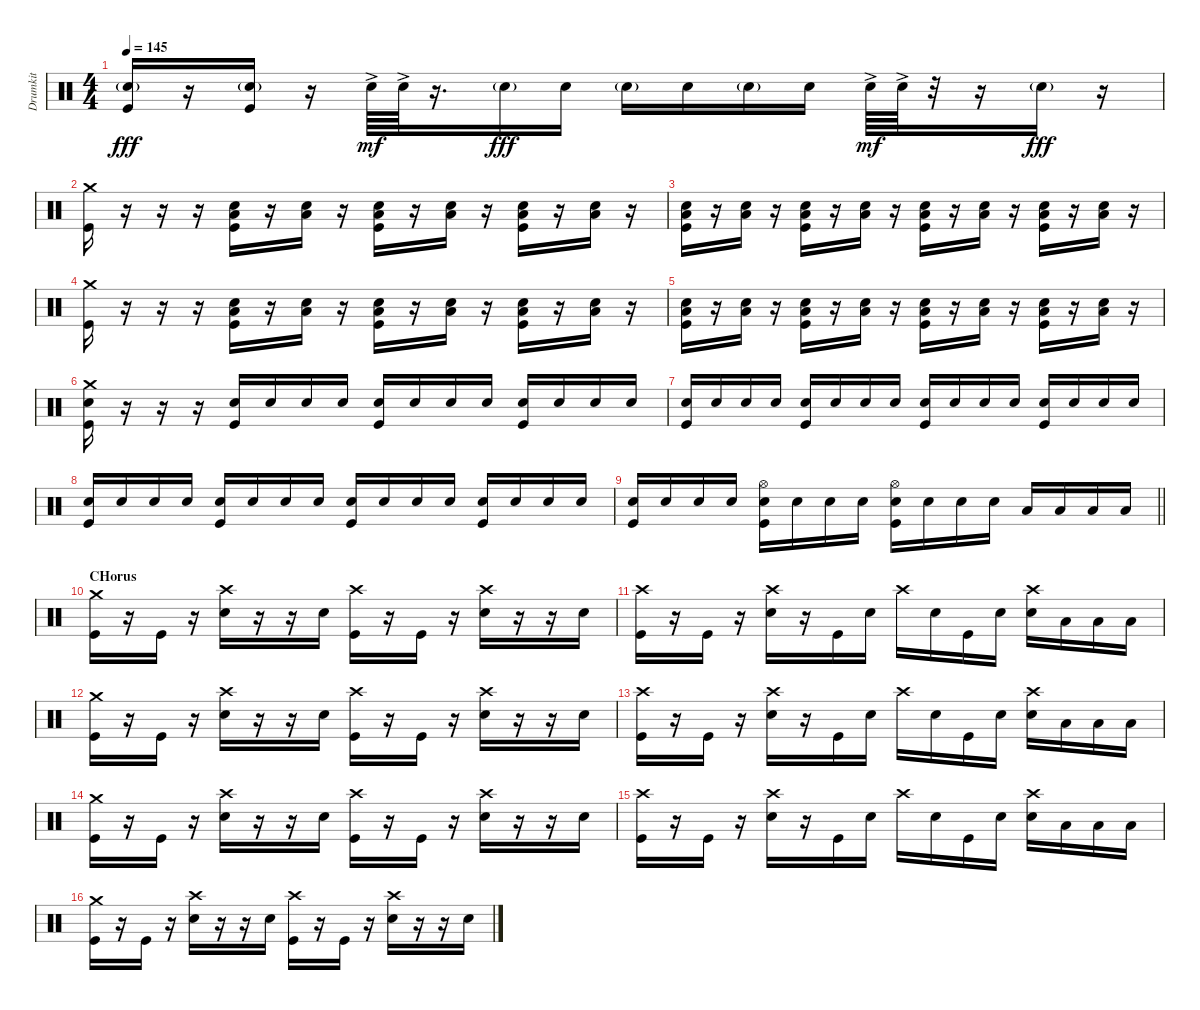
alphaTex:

\track ("Drumkit" "Drumkit") {instrument percussion}
\staff {score}
\articulation defaults
\ts (4 4)
\tempo 145
\clef neutral
\ks c
("Snare (hit) 2"{g} "Kick (hit)").16{dy fff} r.16 ("Snare (hit) 2"{g} "Kick (hit)").16 r.16 "Snare (hit) 2"{ac}.64{dy mf} "Snare (hit) 2"{ac}.64 r.16{d} "Snare (hit) 2"{g}.16{dy fff} "Snare (hit) 2".16 "Snare (hit) 2"{g}.16 "Snare (hit) 2".16 "Snare (hit) 2"{g}.16 "Snare (hit) 2".16 "Snare (hit) 2"{ac}.64{dy mf} "Snare (hit) 2"{ac}.64 r.32 r.16 "Snare (hit) 2"{g}.16{dy fff} r.16 |
("Crash medium (hit)" "Kick (hit)").16 r.16 r.16 r.16 ("Snare (hit) 2" "Kick (hit)" "Low Floor Tom (hit)").16 r.16 ("Snare (hit) 2" "Low Floor Tom (hit)").16 r.16 ("Snare (hit) 2" "Kick (hit)" "Low Floor Tom (hit)").16 r.16 ("Snare (hit) 2" "Low Floor Tom (hit)").16 r.16 ("Snare (hit) 2" "Kick (hit)" "Low Floor Tom (hit)").16 r.16 ("Snare (hit) 2" "Low Floor Tom (hit)").16 r.16 |
("Snare (hit) 2" "Kick (hit)" "Low Floor Tom (hit)").16 r.16 ("Snare (hit) 2" "Low Floor Tom (hit)").16 r.16 ("Snare (hit) 2" "Kick (hit)" "Low Floor Tom (hit)").16 r.16 ("Snare (hit) 2" "Low Floor Tom (hit)").16 r.16 ("Snare (hit) 2" "Kick (hit)" "Low Floor Tom (hit)").16 r.16 ("Snare (hit) 2" "Low Floor Tom (hit)").16 r.16 ("Snare (hit) 2" "Kick (hit)" "Low Floor Tom (hit)").16 r.16 ("Snare (hit) 2" "Low Floor Tom (hit)").16 r.16 |
("Crash medium (hit)" "Kick (hit)").16 r.16 r.16 r.16 ("Snare (hit) 2" "Kick (hit)" "Low Floor Tom (hit)").16 r.16 ("Snare (hit) 2" "Low Floor Tom (hit)").16 r.16 ("Snare (hit) 2" "Kick (hit)" "Low Floor Tom (hit)").16 r.16 ("Snare (hit) 2" "Low Floor Tom (hit)").16 r.16 ("Snare (hit) 2" "Kick (hit)" "Low Floor Tom (hit)").16 r.16 ("Snare (hit) 2" "Low Floor Tom (hit)").16 r.16 |
("Snare (hit) 2" "Kick (hit)" "Low Floor Tom (hit)").16 r.16 ("Snare (hit) 2" "Low Floor Tom (hit)").16 r.16 ("Snare (hit) 2" "Kick (hit)" "Low Floor Tom (hit)").16 r.16 ("Snare (hit) 2" "Low Floor Tom (hit)").16 r.16 ("Snare (hit) 2" "Kick (hit)" "Low Floor Tom (hit)").16 r.16 ("Snare (hit) 2" "Low Floor Tom (hit)").16 r.16 ("Snare (hit) 2" "Kick (hit)" "Low Floor Tom (hit)").16 r.16 ("Snare (hit) 2" "Low Floor Tom (hit)").16 r.16 |
("Crash medium (hit)" "Kick (hit)" "Snare (hit) 2").16 r.16 r.16 r.16 ("Kick (hit)" "Snare (hit) 2").16 "Snare (hit) 2".16 "Snare (hit) 2".16 "Snare (hit) 2".16 ("Kick (hit)" "Snare (hit) 2").16 "Snare (hit) 2".16 "Snare (hit) 2".16 "Snare (hit) 2".16 ("Kick (hit)" "Snare (hit) 2").16 "Snare (hit) 2".16 "Snare (hit) 2".16 "Snare (hit) 2".16 |
("Kick (hit)" "Snare (hit) 2").16 "Snare (hit) 2".16 "Snare (hit) 2".16 "Snare (hit) 2".16 ("Kick (hit)" "Snare (hit) 2").16 "Snare (hit) 2".16 "Snare (hit) 2".16 "Snare (hit) 2".16 ("Kick (hit)" "Snare (hit) 2").16 "Snare (hit) 2".16 "Snare (hit) 2".16 "Snare (hit) 2".16 ("Kick (hit)" "Snare (hit) 2").16 "Snare (hit) 2".16 "Snare (hit) 2".16 "Snare (hit) 2".16 |
("Snare (hit) 2" "Kick (hit)").16 "Snare (hit) 2".16 "Snare (hit) 2".16 "Snare (hit) 2".16 ("Snare (hit) 2" "Kick (hit)").16 "Snare (hit) 2".16 "Snare (hit) 2".16 "Snare (hit) 2".16 ("Snare (hit) 2" "Kick (hit)").16 "Snare (hit) 2".16 "Snare (hit) 2".16 "Snare (hit) 2".16 ("Snare (hit) 2" "Kick (hit)").16 "Snare (hit) 2".16 "Snare (hit) 2".16 "Snare (hit) 2".16 |
\barLineRight lightlight
("Kick (hit)" "Snare (hit) 2").16 "Snare (hit) 2".16 "Snare (hit) 2".16 "Snare (hit) 2".16 ("Hi-Hat (open)" "Kick (hit)" "Snare (hit) 2").16 "Snare (hit) 2".16 "Snare (hit) 2".16 "Snare (hit) 2".16 ("Hi-Hat (open)" "Kick (hit)" "Snare (hit) 2").16 "Snare (hit) 2".16 "Snare (hit) 2".16 "Snare (hit) 2".16 "Low Tom (hit)".16 "Low Tom (hit)".16 "Low Floor Tom (hit)".16 "Low Floor Tom (hit)".16 |
\section ("" "CHorus")
("Crash medium (hit)" "Kick (hit)").16 r.16 "Kick (hit)".16 r.16 ("Crash high (hit)" "Snare (hit) 2").16 r.16 r.16 "Snare (hit) 2".16 ("Crash high (hit)" "Kick (hit)").16 r.16 "Kick (hit)".16 r.16 ("Crash high (hit)" "Snare (hit) 2").16 r.16 r.16 "Snare (hit) 2".16 |
("Crash high (hit)" "Kick (hit)").16 r.16 "Kick (hit)".16 r.16 ("Crash high (hit)" "Snare (hit) 2").16 r.16 "Kick (hit)".16 "Snare (hit) 2".16 "Crash high (hit)".16 "Snare (hit) 2".16 "Kick (hit)".16 "Snare (hit) 2".16 ("Crash high (hit)" "Snare (hit) 2").16 "Low Tom (hit)".16 "Low Tom (hit)".16 "Low Floor Tom (hit)".16 |
("Crash medium (hit)" "Kick (hit)").16 r.16 "Kick (hit)".16 r.16 ("Crash high (hit)" "Snare (hit) 2").16 r.16 r.16 "Snare (hit) 2".16 ("Crash high (hit)" "Kick (hit)").16 r.16 "Kick (hit)".16 r.16 ("Crash high (hit)" "Snare (hit) 2").16 r.16 r.16 "Snare (hit) 2".16 |
("Crash high (hit)" "Kick (hit)").16 r.16 "Kick (hit)".16 r.16 ("Crash high (hit)" "Snare (hit) 2").16 r.16 "Kick (hit)".16 "Snare (hit) 2".16 "Crash high (hit)".16 "Snare (hit) 2".16 "Kick (hit)".16 "Snare (hit) 2".16 ("Crash high (hit)" "Snare (hit) 2").16 "Low Tom (hit)".16 "Low Tom (hit)".16 "Low Floor Tom (hit)".16 |
("Crash medium (hit)" "Kick (hit)").16 r.16 "Kick (hit)".16 r.16 ("Crash high (hit)" "Snare (hit) 2").16 r.16 r.16 "Snare (hit) 2".16 ("Crash high (hit)" "Kick (hit)").16 r.16 "Kick (hit)".16 r.16 ("Crash high (hit)" "Snare (hit) 2").16 r.16 r.16 "Snare (hit) 2".16 |
("Crash high (hit)" "Kick (hit)").16 r.16 "Kick (hit)".16 r.16 ("Crash high (hit)" "Snare (hit) 2").16 r.16 "Kick (hit)".16 "Snare (hit) 2".16 "Crash high (hit)".16 "Snare (hit) 2".16 "Kick (hit)".16 "Snare (hit) 2".16 ("Crash high (hit)" "Snare (hit) 2").16 "Low Tom (hit)".16 "Low Tom (hit)".16 "Low Floor Tom (hit)".16 |
("Crash medium (hit)" "Kick (hit)").16 r.16 "Kick (hit)".16 r.16 ("Crash high (hit)" "Snare (hit) 2").16 r.16 r.16 "Snare (hit) 2".16 ("Crash high (hit)" "Kick (hit)").16 r.16 "Kick (hit)".16 r.16 ("Crash high (hit)" "Snare (hit) 2").16 r.16 r.16 "Snare (hit) 2".16
